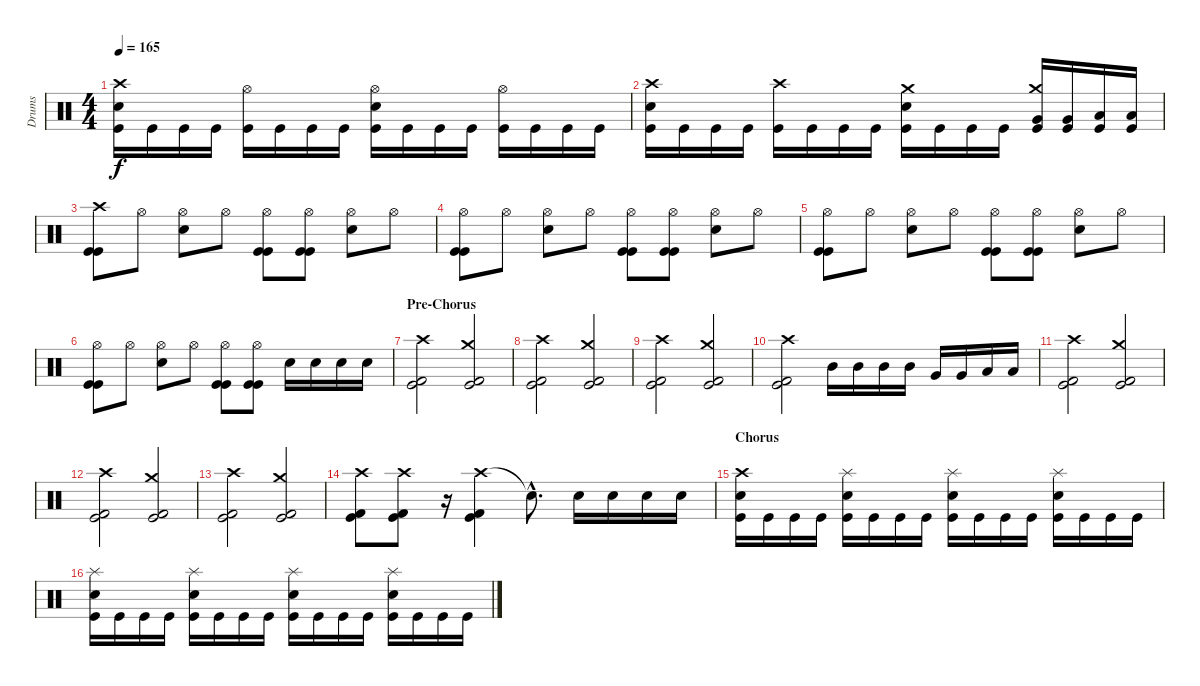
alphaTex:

\track ("Drums" "Drums") {instrument percussion}
\staff {score}
\articulation defaults
\ts (4 4)
\tempo 165
\clef neutral
\ks c
("Crash high (hit)" "Electric Snare (hit)" "Kick (hit)").16{dy f} "Kick (hit)".16 "Kick (hit)".16 "Kick (hit)".16 ("Hi-Hat (open)" "Kick (hit)").16 "Kick (hit)".16 "Kick (hit)".16 "Kick (hit)".16 ("Hi-Hat (open)" "Electric Snare (hit)" "Kick (hit)").16 "Kick (hit)".16 "Kick (hit)".16 "Kick (hit)".16 ("Hi-Hat (open)" "Kick (hit)").16 "Kick (hit)".16 "Kick (hit)".16 "Kick (hit)".16 |
("Crash high (hit)" "Electric Snare (hit)" "Kick (hit)").16 "Kick (hit)".16 "Kick (hit)".16 "Kick (hit)".16 ("Crash high (hit)" "Kick (hit)").16 "Kick (hit)".16 "Kick (hit)".16 "Kick (hit)".16 ("Crash medium (hit)" "Electric Snare (hit)" "Kick (hit)").16 "Kick (hit)".16 "Kick (hit)".16 "Kick (hit)".16 ("Crash medium (hit)" "Very Low Tom (hit)" "Kick (hit)").16 ("Very Low Tom (hit)" "Kick (hit)").16 ("Low Floor Tom (hit)" "Kick (hit)").16 ("Low Floor Tom (hit)" "Kick (hit)").16 |
("Crash high (hit)" "Kick (hit)" "Kick (hit)").8 "Hi-Hat (open)".8 ("Hi-Hat (open)" "Electric Snare (hit)").8 "Hi-Hat (open)".8 ("Hi-Hat (open)" "Kick (hit)" "Kick (hit)").8 ("Hi-Hat (open)" "Kick (hit)" "Kick (hit)").8 ("Hi-Hat (open)" "Electric Snare (hit)").8 "Hi-Hat (open)".8 |
("Hi-Hat (open)" "Kick (hit)" "Kick (hit)").8 "Hi-Hat (open)".8 ("Hi-Hat (open)" "Electric Snare (hit)").8 "Hi-Hat (open)".8 ("Hi-Hat (open)" "Kick (hit)" "Kick (hit)").8 ("Hi-Hat (open)" "Kick (hit)" "Kick (hit)").8 ("Hi-Hat (open)" "Electric Snare (hit)").8 "Hi-Hat (open)".8 |
("Hi-Hat (open)" "Kick (hit)" "Kick (hit)").8 "Hi-Hat (open)".8 ("Hi-Hat (open)" "Electric Snare (hit)").8 "Hi-Hat (open)".8 ("Hi-Hat (open)" "Kick (hit)" "Kick (hit)").8 ("Hi-Hat (open)" "Kick (hit)" "Kick (hit)").8 ("Hi-Hat (open)" "Electric Snare (hit)").8 "Hi-Hat (open)".8 |
("Hi-Hat (open)" "Kick (hit)" "Kick (hit)").8 "Hi-Hat (open)".8 ("Hi-Hat (open)" "Electric Snare (hit)").8 "Hi-Hat (open)".8 ("Hi-Hat (open)" "Kick (hit)" "Kick (hit)").8 ("Hi-Hat (open)" "Kick (hit)" "Kick (hit)").8 "Electric Snare (hit)".16{volume 10} "Electric Snare (hit)".16{volume 12} "Electric Snare (hit)".16{volume 14} "Electric Snare (hit)".16 |
\section ("" "Pre-Chorus")
("Crash high (hit)" "Kick (hit)" "Kick (hit) 2").2 ("Crash medium (hit)" "Kick (hit)" "Kick (hit) 2").2 |
("Crash high (hit)" "Kick (hit)" "Kick (hit) 2").2 ("Crash medium (hit)" "Kick (hit)" "Kick (hit) 2").2 |
("Crash high (hit)" "Kick (hit)" "Kick (hit) 2").2 ("Crash medium (hit)" "Kick (hit)" "Kick (hit) 2").2 |
("Crash high (hit)" "Kick (hit)" "Kick (hit) 2").2 "Mid Tom (hit)".16 "Mid Tom (hit)".16 "Mid Tom (hit)".16 "Mid Tom (hit)".16 "Very Low Tom (hit)".16 "Very Low Tom (hit)".16 "Low Floor Tom (hit)".16 "Low Floor Tom (hit)".16 |
("Crash high (hit)" "Kick (hit)" "Kick (hit) 2").2 ("Crash medium (hit)" "Kick (hit)" "Kick (hit) 2").2 |
("Crash high (hit)" "Kick (hit)" "Kick (hit) 2").2 ("Crash medium (hit)" "Kick (hit)" "Kick (hit) 2").2 |
("Crash high (hit)" "Kick (hit)" "Kick (hit) 2").2 ("Crash medium (hit)" "Kick (hit)" "Kick (hit) 2").2 |
("Crash high (hit)" "Kick (hit)" "Kick (hit) 2").8 ("Crash high (hit)" "Kick (hit)" "Kick (hit) 2").8 r.16 ("Crash high (hit)" "Kick (hit)" "Kick (hit) 2").4 "Snare (hit)"{hac t}.8{d} "Electric Snare (hit)".16 "Electric Snare (hit)".16 "Electric Snare (hit)".16 "Electric Snare (hit)".16 |
\section ("" "Chorus")
("Crash high (hit)" "Electric Snare (hit)" "Kick (hit)").16 "Kick (hit)".16 "Kick (hit)".16 "Kick (hit)".16 ("Splash (hit)" "Electric Snare (hit)" "Kick (hit)").16 "Kick (hit)".16 "Kick (hit)".16 "Kick (hit)".16 ("Splash (hit)" "Electric Snare (hit)" "Kick (hit)").16 "Kick (hit)".16 "Kick (hit)".16 "Kick (hit)".16 ("Splash (hit)" "Electric Snare (hit)" "Kick (hit)").16 "Kick (hit)".16 "Kick (hit)".16 "Kick (hit)".16 |
("Splash (hit)" "Electric Snare (hit)" "Kick (hit)").16 "Kick (hit)".16 "Kick (hit)".16 "Kick (hit)".16 ("Splash (hit)" "Electric Snare (hit)" "Kick (hit)").16 "Kick (hit)".16 "Kick (hit)".16 "Kick (hit)".16 ("Splash (hit)" "Electric Snare (hit)" "Kick (hit)").16 "Kick (hit)".16 "Kick (hit)".16 "Kick (hit)".16 ("Splash (hit)" "Electric Snare (hit)" "Kick (hit)").16 "Kick (hit)".16 "Kick (hit)".16 "Kick (hit)".16
